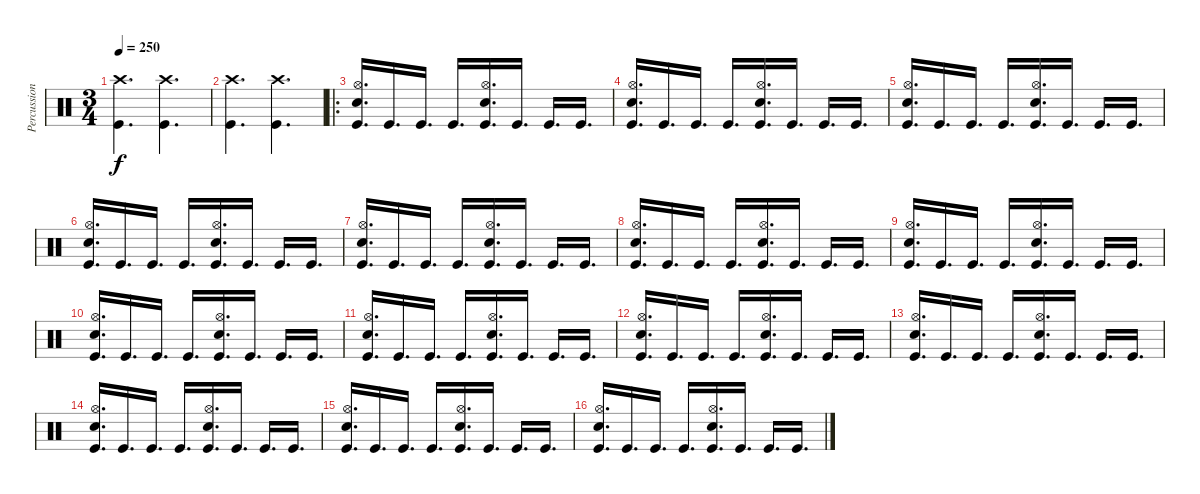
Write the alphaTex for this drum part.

\track ("Percussion" "Percussion") {instrument percussion}
\staff {score}
\articulation defaults
\ts (3 4)
\tempo 250
\clef neutral
\ks c
("Crash high (hit)" "Kick (hit)").4{d dy f} ("Crash high (hit)" "Kick (hit)").4{d} |
("Crash high (hit)" "Kick (hit)").4{d} ("Crash high (hit)" "Kick (hit)").4{d} |
\ro
("Hi-Hat (open)" "Snare (hit) 2" "Kick (hit)").16{d} "Kick (hit)".16{d} "Kick (hit)".16{d} "Kick (hit)".16{d} ("Hi-Hat (open)" "Snare (hit) 2" "Kick (hit)").16{d} "Kick (hit)".16{d} "Kick (hit)".16{d} "Kick (hit)".16{d} |
("Hi-Hat (open)" "Snare (hit) 2" "Kick (hit)").16{d} "Kick (hit)".16{d} "Kick (hit)".16{d} "Kick (hit)".16{d} ("Hi-Hat (open)" "Snare (hit) 2" "Kick (hit)").16{d} "Kick (hit)".16{d} "Kick (hit)".16{d} "Kick (hit)".16{d} |
("Hi-Hat (open)" "Snare (hit) 2" "Kick (hit)").16{d} "Kick (hit)".16{d} "Kick (hit)".16{d} "Kick (hit)".16{d} ("Hi-Hat (open)" "Snare (hit) 2" "Kick (hit)").16{d} "Kick (hit)".16{d} "Kick (hit)".16{d} "Kick (hit)".16{d} |
("Hi-Hat (open)" "Snare (hit) 2" "Kick (hit)").16{d} "Kick (hit)".16{d} "Kick (hit)".16{d} "Kick (hit)".16{d} ("Hi-Hat (open)" "Snare (hit) 2" "Kick (hit)").16{d} "Kick (hit)".16{d} "Kick (hit)".16{d} "Kick (hit)".16{d} |
("Hi-Hat (open)" "Snare (hit) 2" "Kick (hit)").16{d} "Kick (hit)".16{d} "Kick (hit)".16{d} "Kick (hit)".16{d} ("Hi-Hat (open)" "Snare (hit) 2" "Kick (hit)").16{d} "Kick (hit)".16{d} "Kick (hit)".16{d} "Kick (hit)".16{d} |
("Hi-Hat (open)" "Snare (hit) 2" "Kick (hit)").16{d} "Kick (hit)".16{d} "Kick (hit)".16{d} "Kick (hit)".16{d} ("Hi-Hat (open)" "Snare (hit) 2" "Kick (hit)").16{d} "Kick (hit)".16{d} "Kick (hit)".16{d} "Kick (hit)".16{d} |
("Hi-Hat (open)" "Snare (hit) 2" "Kick (hit)").16{d} "Kick (hit)".16{d} "Kick (hit)".16{d} "Kick (hit)".16{d} ("Hi-Hat (open)" "Snare (hit) 2" "Kick (hit)").16{d} "Kick (hit)".16{d} "Kick (hit)".16{d} "Kick (hit)".16{d} |
("Hi-Hat (open)" "Snare (hit) 2" "Kick (hit)").16{d} "Kick (hit)".16{d} "Kick (hit)".16{d} "Kick (hit)".16{d} ("Hi-Hat (open)" "Snare (hit) 2" "Kick (hit)").16{d} "Kick (hit)".16{d} "Kick (hit)".16{d} "Kick (hit)".16{d} |
("Hi-Hat (open)" "Snare (hit) 2" "Kick (hit)").16{d} "Kick (hit)".16{d} "Kick (hit)".16{d} "Kick (hit)".16{d} ("Hi-Hat (open)" "Snare (hit) 2" "Kick (hit)").16{d} "Kick (hit)".16{d} "Kick (hit)".16{d} "Kick (hit)".16{d} |
("Hi-Hat (open)" "Snare (hit) 2" "Kick (hit)").16{d} "Kick (hit)".16{d} "Kick (hit)".16{d} "Kick (hit)".16{d} ("Hi-Hat (open)" "Snare (hit) 2" "Kick (hit)").16{d} "Kick (hit)".16{d} "Kick (hit)".16{d} "Kick (hit)".16{d} |
("Hi-Hat (open)" "Snare (hit) 2" "Kick (hit)").16{d} "Kick (hit)".16{d} "Kick (hit)".16{d} "Kick (hit)".16{d} ("Hi-Hat (open)" "Snare (hit) 2" "Kick (hit)").16{d} "Kick (hit)".16{d} "Kick (hit)".16{d} "Kick (hit)".16{d} |
("Hi-Hat (open)" "Snare (hit) 2" "Kick (hit)").16{d} "Kick (hit)".16{d} "Kick (hit)".16{d} "Kick (hit)".16{d} ("Hi-Hat (open)" "Snare (hit) 2" "Kick (hit)").16{d} "Kick (hit)".16{d} "Kick (hit)".16{d} "Kick (hit)".16{d} |
("Hi-Hat (open)" "Snare (hit) 2" "Kick (hit)").16{d} "Kick (hit)".16{d} "Kick (hit)".16{d} "Kick (hit)".16{d} ("Hi-Hat (open)" "Snare (hit) 2" "Kick (hit)").16{d} "Kick (hit)".16{d} "Kick (hit)".16{d} "Kick (hit)".16{d} |
("Hi-Hat (open)" "Snare (hit) 2" "Kick (hit)").16{d} "Kick (hit)".16{d} "Kick (hit)".16{d} "Kick (hit)".16{d} ("Hi-Hat (open)" "Snare (hit) 2" "Kick (hit)").16{d} "Kick (hit)".16{d} "Kick (hit)".16{d} "Kick (hit)".16{d}
